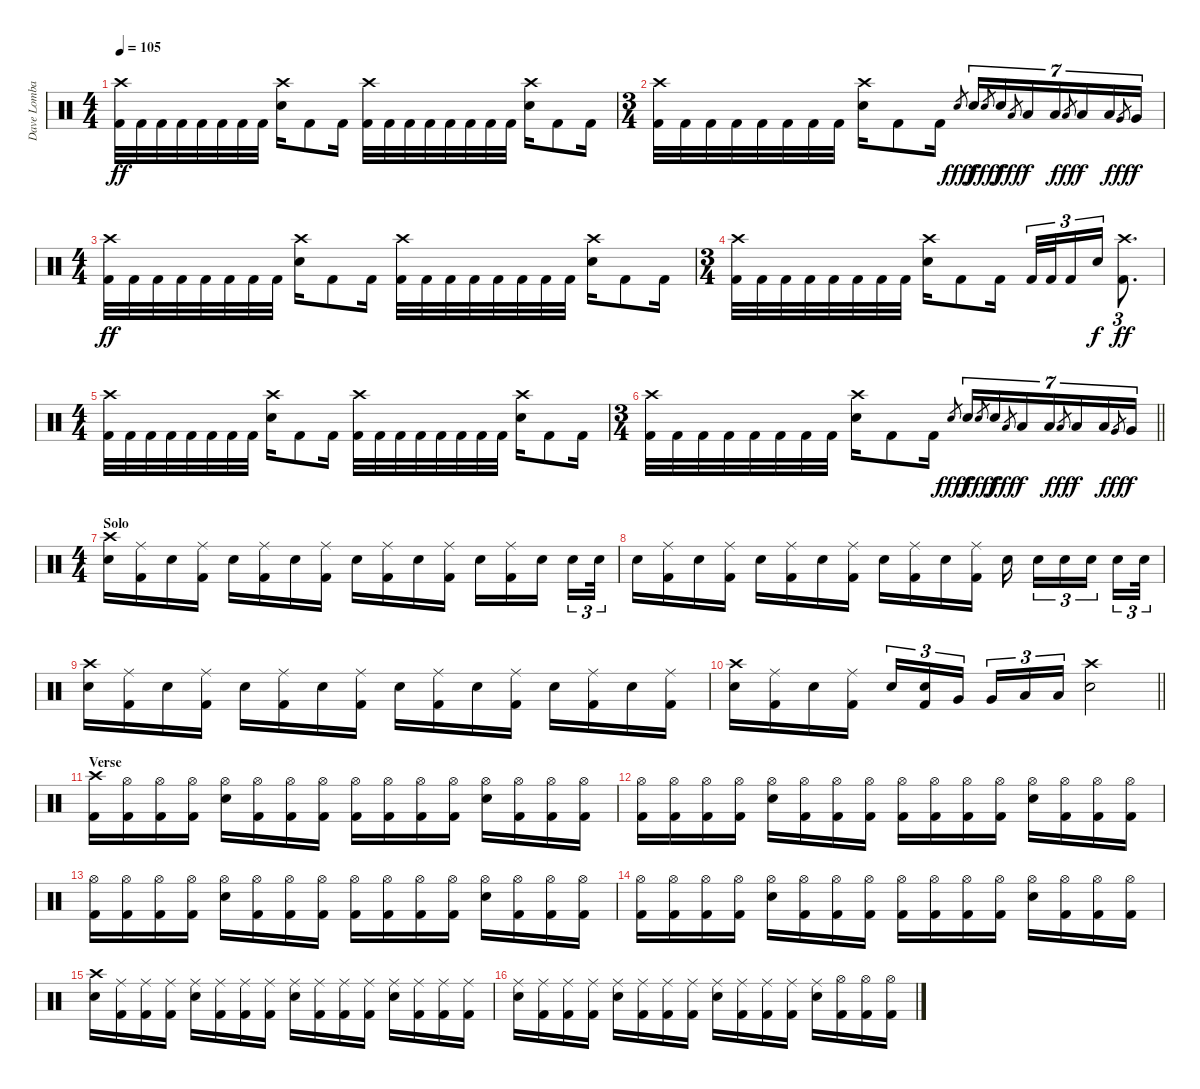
\track ("Dave Lombardo" "Dave Lomba") {instrument percussion}
\staff {score}
\articulation defaults
\ts (4 4)
\tempo 105
\clef neutral
\ks c
("Crash high (hit)" "Kick (hit) 2").32{dy ff} "Kick (hit) 2".32 "Kick (hit) 2".32 "Kick (hit) 2".32 "Kick (hit) 2".32 "Kick (hit) 2".32 "Kick (hit) 2".32 "Kick (hit) 2".32 ("Crash high (hit)" "Snare (hit) 2").16 "Kick (hit) 2".8 "Kick (hit) 2".16 ("Crash high (hit)" "Kick (hit) 2").32 "Kick (hit) 2".32 "Kick (hit) 2".32 "Kick (hit) 2".32 "Kick (hit) 2".32 "Kick (hit) 2".32 "Kick (hit) 2".32 "Kick (hit) 2".32 ("Crash high (hit)" "Snare (hit) 2").16 "Kick (hit) 2".8 "Kick (hit) 2".16 |
\ts (3 4)
("Crash high (hit)" "Kick (hit) 2").32 "Kick (hit) 2".32 "Kick (hit) 2".32 "Kick (hit) 2".32 "Kick (hit) 2".32 "Kick (hit) 2".32 "Kick (hit) 2".32 "Kick (hit) 2".32 ("Crash high (hit)" "Snare (hit) 2").16 "Kick (hit) 2".8 "Kick (hit) 2".16 "Snare (hit) 2".8{gr dy fff} "Snare (hit) 2".16{tu (7 4) dy f} "Snare (hit) 2".8{gr dy fff} "Snare (hit) 2".16{tu (7 4) dy f} "Low Floor Tom (hit)".8{gr dy fff} "Low Floor Tom (hit)".16{tu (7 4) dy f} "Low Floor Tom (hit)".16{tu (7 4)} "Low Tom (hit)".8{gr dy fff} "Low Tom (hit)".16{tu (7 4) dy f} "Low Tom (hit)".16{tu (7 4)} "Very Low Tom (hit)".8{gr dy fff} "Very Low Tom (hit)".16{tu (7 4) dy f} |
\ts (4 4)
("Crash high (hit)" "Kick (hit) 2").32{dy ff} "Kick (hit) 2".32 "Kick (hit) 2".32 "Kick (hit) 2".32 "Kick (hit) 2".32 "Kick (hit) 2".32 "Kick (hit) 2".32 "Kick (hit) 2".32 ("Crash high (hit)" "Snare (hit) 2").16 "Kick (hit) 2".8 "Kick (hit) 2".16 ("Crash high (hit)" "Kick (hit) 2").32 "Kick (hit) 2".32 "Kick (hit) 2".32 "Kick (hit) 2".32 "Kick (hit) 2".32 "Kick (hit) 2".32 "Kick (hit) 2".32 "Kick (hit) 2".32 ("Crash high (hit)" "Snare (hit) 2").16 "Kick (hit) 2".8 "Kick (hit) 2".16 |
\ts (3 4)
("Crash high (hit)" "Kick (hit) 2").32 "Kick (hit) 2".32 "Kick (hit) 2".32 "Kick (hit) 2".32 "Kick (hit) 2".32 "Kick (hit) 2".32 "Kick (hit) 2".32 "Kick (hit) 2".32 ("Crash high (hit)" "Snare (hit) 2").16 "Kick (hit) 2".8 "Kick (hit) 2".16 "Kick (hit) 2".32{tu (3 2)} "Kick (hit) 2".32{tu (3 2)} "Kick (hit) 2".16{tu (3 2)} "Snare (hit) 2".16{tu (3 2) dy f} ("Crash high (hit)" "Kick (hit) 2").8{d tu (3 2) dy ff} |
\ts (4 4)
("Crash high (hit)" "Kick (hit) 2").32 "Kick (hit) 2".32 "Kick (hit) 2".32 "Kick (hit) 2".32 "Kick (hit) 2".32 "Kick (hit) 2".32 "Kick (hit) 2".32 "Kick (hit) 2".32 ("Crash high (hit)" "Snare (hit) 2").16 "Kick (hit) 2".8 "Kick (hit) 2".16 ("Crash high (hit)" "Kick (hit) 2").32 "Kick (hit) 2".32 "Kick (hit) 2".32 "Kick (hit) 2".32 "Kick (hit) 2".32 "Kick (hit) 2".32 "Kick (hit) 2".32 "Kick (hit) 2".32 ("Crash high (hit)" "Snare (hit) 2").16 "Kick (hit) 2".8 "Kick (hit) 2".16 |
\ts (3 4)
\barLineRight lightlight
("Crash high (hit)" "Kick (hit) 2").32 "Kick (hit) 2".32 "Kick (hit) 2".32 "Kick (hit) 2".32 "Kick (hit) 2".32 "Kick (hit) 2".32 "Kick (hit) 2".32 "Kick (hit) 2".32 ("Crash high (hit)" "Snare (hit) 2").16 "Kick (hit) 2".8 "Kick (hit) 2".16 "Snare (hit) 2".8{gr dy fff} "Snare (hit) 2".16{tu (7 4) dy f} "Snare (hit) 2".8{gr dy fff} "Snare (hit) 2".16{tu (7 4) dy f} "Low Floor Tom (hit)".8{gr dy fff} "Low Floor Tom (hit)".16{tu (7 4) dy f} "Low Floor Tom (hit)".16{tu (7 4)} "Low Tom (hit)".8{gr dy fff} "Low Tom (hit)".16{tu (7 4) dy f} "Low Tom (hit)".16{tu (7 4)} "Very Low Tom (hit)".8{gr dy fff} "Very Low Tom (hit)".16{tu (7 4) dy f} |
\ts (4 4)
\section ("" "Solo ")
("Crash high (hit)" "Snare (hit) 2").16 ("Ride (middle)" "Kick (hit) 2").16 "Snare (hit) 2".16 ("Ride (middle)" "Kick (hit) 2").16 "Snare (hit) 2".16 ("Ride (middle)" "Kick (hit) 2").16 "Snare (hit) 2".16 ("Ride (middle)" "Kick (hit) 2").16 "Snare (hit) 2".16 ("Ride (middle)" "Kick (hit) 2").16 "Snare (hit) 2".16 ("Ride (middle)" "Kick (hit) 2").16 "Snare (hit) 2".16 ("Ride (middle)" "Kick (hit) 2").16 "Snare (hit) 2".16{beam splitsecondary} "Snare (hit) 2".16{tu (3 2)} "Snare (hit) 2".32{tu (3 2)} |
"Snare (hit) 2".16 ("Ride (middle)" "Kick (hit) 2").16 "Snare (hit) 2".16 ("Ride (middle)" "Kick (hit) 2").16 "Snare (hit) 2".16 ("Ride (middle)" "Kick (hit) 2").16 "Snare (hit) 2".16 ("Ride (middle)" "Kick (hit) 2").16 "Snare (hit) 2".16 ("Ride (middle)" "Kick (hit) 2").16 "Snare (hit) 2".16 ("Ride (middle)" "Kick (hit) 2").16 "Snare (hit) 2".16{beam splitsecondary} "Snare (hit) 2".16{tu (3 2)} "Snare (hit) 2".16{tu (3 2)} "Snare (hit) 2".16{tu (3 2) beam splitsecondary} "Snare (hit) 2".16{tu (3 2)} "Snare (hit) 2".32{tu (3 2)} |
("Crash high (hit)" "Snare (hit) 2").16 ("Ride (middle)" "Kick (hit) 2").16 "Snare (hit) 2".16 ("Ride (middle)" "Kick (hit) 2").16 "Snare (hit) 2".16 ("Ride (middle)" "Kick (hit) 2").16 "Snare (hit) 2".16 ("Ride (middle)" "Kick (hit) 2").16 "Snare (hit) 2".16 ("Ride (middle)" "Kick (hit) 2").16 "Snare (hit) 2".16 ("Ride (middle)" "Kick (hit) 2").16 "Snare (hit) 2".16 ("Ride (middle)" "Kick (hit) 2").16 "Snare (hit) 2".16 ("Ride (middle)" "Kick (hit) 2").16 |
\barLineRight lightlight
("Crash high (hit)" "Snare (hit) 2").16 ("Ride (middle)" "Kick (hit) 2").16 "Snare (hit) 2".16 ("Ride (middle)" "Kick (hit) 2").16 "Snare (hit) 2".16{tu (3 2)} ("Snare (hit) 2" "Kick (hit) 2").16{tu (3 2)} "Very Low Tom (hit)".16{tu (3 2) beam splitsecondary} "Very Low Tom (hit)".16{tu (3 2)} "Low Floor Tom (hit)".16{tu (3 2)} "Low Floor Tom (hit)".16{tu (3 2)} ("Crash high (hit)" "Snare (hit) 2").2 |
\section ("" "Verse")
("Crash high (hit)" "Kick (hit) 2").16 ("Hi-Hat (open)" "Kick (hit) 2").16 ("Hi-Hat (open)" "Kick (hit) 2").16 ("Hi-Hat (open)" "Kick (hit) 2").16 ("Hi-Hat (open)" "Snare (hit) 2").16 ("Hi-Hat (open)" "Kick (hit) 2").16 ("Hi-Hat (open)" "Kick (hit) 2").16 ("Hi-Hat (open)" "Kick (hit) 2").16 ("Hi-Hat (open)" "Kick (hit) 2").16 ("Hi-Hat (open)" "Kick (hit) 2").16 ("Hi-Hat (open)" "Kick (hit) 2").16 ("Hi-Hat (open)" "Kick (hit) 2").16 ("Hi-Hat (open)" "Snare (hit) 2").16 ("Hi-Hat (open)" "Kick (hit) 2").16 ("Hi-Hat (open)" "Kick (hit) 2").16 ("Hi-Hat (open)" "Kick (hit) 2").16 |
("Hi-Hat (open)" "Kick (hit) 2").16 ("Hi-Hat (open)" "Kick (hit) 2").16 ("Hi-Hat (open)" "Kick (hit) 2").16 ("Hi-Hat (open)" "Kick (hit) 2").16 ("Hi-Hat (open)" "Snare (hit) 2").16 ("Hi-Hat (open)" "Kick (hit) 2").16 ("Hi-Hat (open)" "Kick (hit) 2").16 ("Hi-Hat (open)" "Kick (hit) 2").16 ("Hi-Hat (open)" "Kick (hit) 2").16 ("Hi-Hat (open)" "Kick (hit) 2").16 ("Hi-Hat (open)" "Kick (hit) 2").16 ("Hi-Hat (open)" "Kick (hit) 2").16 ("Hi-Hat (open)" "Snare (hit) 2").16 ("Hi-Hat (open)" "Kick (hit) 2").16 ("Hi-Hat (open)" "Kick (hit) 2").16 ("Hi-Hat (open)" "Kick (hit) 2").16 |
("Hi-Hat (open)" "Kick (hit) 2").16 ("Hi-Hat (open)" "Kick (hit) 2").16 ("Hi-Hat (open)" "Kick (hit) 2").16 ("Hi-Hat (open)" "Kick (hit) 2").16 ("Hi-Hat (open)" "Snare (hit) 2").16 ("Hi-Hat (open)" "Kick (hit) 2").16 ("Hi-Hat (open)" "Kick (hit) 2").16 ("Hi-Hat (open)" "Kick (hit) 2").16 ("Hi-Hat (open)" "Kick (hit) 2").16 ("Hi-Hat (open)" "Kick (hit) 2").16 ("Hi-Hat (open)" "Kick (hit) 2").16 ("Hi-Hat (open)" "Kick (hit) 2").16 ("Hi-Hat (open)" "Snare (hit) 2").16 ("Hi-Hat (open)" "Kick (hit) 2").16 ("Hi-Hat (open)" "Kick (hit) 2").16 ("Hi-Hat (open)" "Kick (hit) 2").16 |
("Hi-Hat (open)" "Kick (hit) 2").16 ("Hi-Hat (open)" "Kick (hit) 2").16 ("Hi-Hat (open)" "Kick (hit) 2").16 ("Hi-Hat (open)" "Kick (hit) 2").16 ("Hi-Hat (open)" "Snare (hit) 2").16 ("Hi-Hat (open)" "Kick (hit) 2").16 ("Hi-Hat (open)" "Kick (hit) 2").16 ("Hi-Hat (open)" "Kick (hit) 2").16 ("Hi-Hat (open)" "Kick (hit) 2").16 ("Hi-Hat (open)" "Kick (hit) 2").16 ("Hi-Hat (open)" "Kick (hit) 2").16 ("Hi-Hat (open)" "Kick (hit) 2").16 ("Hi-Hat (open)" "Snare (hit) 2").16 ("Hi-Hat (open)" "Kick (hit) 2").16 ("Hi-Hat (open)" "Kick (hit) 2").16 ("Hi-Hat (open)" "Kick (hit) 2").16 |
("Crash high (hit)" "Snare (hit) 2").16 ("Ride (middle)" "Kick (hit) 2").16 ("Ride (middle)" "Kick (hit) 2").16 ("Ride (middle)" "Kick (hit) 2").16 ("Ride (middle)" "Snare (hit) 2").16 ("Ride (middle)" "Kick (hit) 2").16 ("Ride (middle)" "Kick (hit) 2").16 ("Ride (middle)" "Kick (hit) 2").16 ("Ride (middle)" "Snare (hit) 2").16 ("Ride (middle)" "Kick (hit) 2").16 ("Ride (middle)" "Kick (hit) 2").16 ("Ride (middle)" "Kick (hit) 2").16 ("Ride (middle)" "Snare (hit) 2").16 ("Ride (middle)" "Kick (hit) 2").16 ("Ride (middle)" "Kick (hit) 2").16 ("Ride (middle)" "Kick (hit) 2").16 |
("Ride (middle)" "Snare (hit) 2").16 ("Ride (middle)" "Kick (hit) 2").16 ("Ride (middle)" "Kick (hit) 2").16 ("Ride (middle)" "Kick (hit) 2").16 ("Ride (middle)" "Snare (hit) 2").16 ("Ride (middle)" "Kick (hit) 2").16 ("Ride (middle)" "Kick (hit) 2").16 ("Ride (middle)" "Kick (hit) 2").16 ("Ride (middle)" "Snare (hit) 2").16 ("Ride (middle)" "Kick (hit) 2").16 ("Ride (middle)" "Kick (hit) 2").16 ("Ride (middle)" "Kick (hit) 2").16 ("Ride (middle)" "Snare (hit) 2").16 ("Hi-Hat (open)" "Kick (hit) 2").16 ("Hi-Hat (open)" "Kick (hit) 2").16 ("Hi-Hat (open)" "Kick (hit) 2").16
